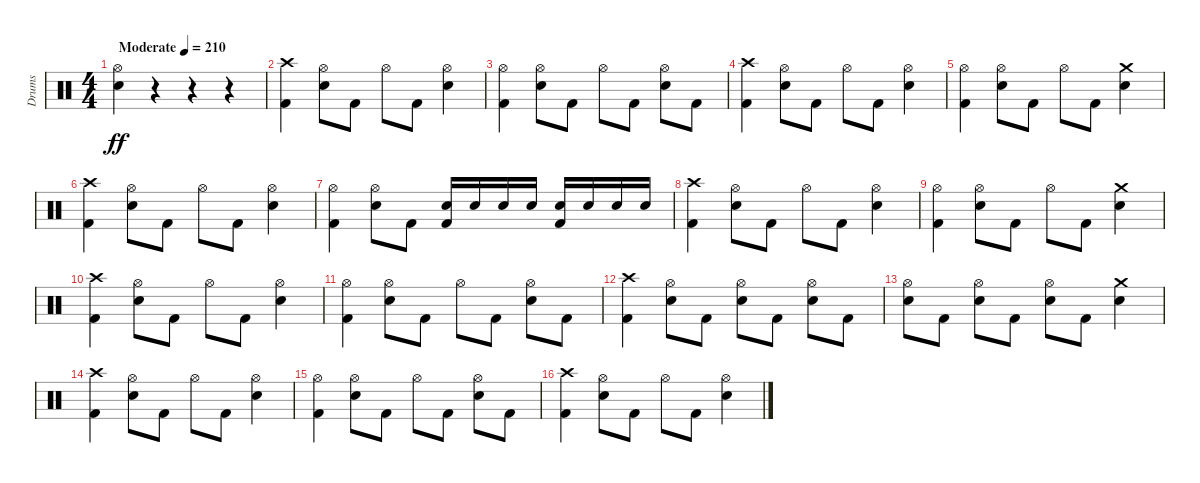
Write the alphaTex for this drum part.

\track ("Drums" "Drums") {instrument percussion}
\staff {score}
\articulation defaults
\ts (4 4)
\tempo (210 "Moderate")
\clef neutral
\ks c
("Hi-Hat (open)" "Electric Snare (hit)").4{dy ff} r.4 r.4 r.4 |
("Crash high (hit)" "Kick (hit) 2").4 ("Hi-Hat (open)" "Electric Snare (hit)").8 "Kick (hit) 2".8 "Hi-Hat (open)".8 "Kick (hit) 2".8 ("Hi-Hat (open)" "Electric Snare (hit)").4 |
("Hi-Hat (open)" "Kick (hit) 2").4 ("Hi-Hat (open)" "Electric Snare (hit)").8 "Kick (hit) 2".8 "Hi-Hat (open)".8 "Kick (hit) 2".8 ("Hi-Hat (open)" "Electric Snare (hit)").8 "Kick (hit) 2".8 |
("Crash high (hit)" "Kick (hit) 2").4 ("Hi-Hat (open)" "Electric Snare (hit)").8 "Kick (hit) 2".8 "Hi-Hat (open)".8 "Kick (hit) 2".8 ("Hi-Hat (open)" "Electric Snare (hit)").4 |
("Hi-Hat (open)" "Kick (hit) 2").4 ("Hi-Hat (open)" "Electric Snare (hit)").8 "Kick (hit) 2".8 "Hi-Hat (open)".8 "Kick (hit) 2".8 ("Crash medium (hit)" "Electric Snare (hit)").4 |
("Crash high (hit)" "Kick (hit) 2").4 ("Hi-Hat (open)" "Electric Snare (hit)").8 "Kick (hit) 2".8 "Hi-Hat (open)".8 "Kick (hit) 2".8 ("Hi-Hat (open)" "Electric Snare (hit)").4 |
("Hi-Hat (open)" "Kick (hit) 2").4 ("Hi-Hat (open)" "Electric Snare (hit)").8 "Kick (hit) 2".8 ("Electric Snare (hit)" "Kick (hit) 2").16 "Electric Snare (hit)".16 "Electric Snare (hit)".16 "Electric Snare (hit)".16 ("Electric Snare (hit)" "Kick (hit) 2").16 "Electric Snare (hit)".16 "Electric Snare (hit)".16 "Electric Snare (hit)".16 |
("Crash high (hit)" "Kick (hit) 2").4 ("Hi-Hat (open)" "Electric Snare (hit)").8 "Kick (hit) 2".8 "Hi-Hat (open)".8 "Kick (hit) 2".8 ("Hi-Hat (open)" "Electric Snare (hit)").4 |
("Hi-Hat (open)" "Kick (hit) 2").4 ("Hi-Hat (open)" "Electric Snare (hit)").8 "Kick (hit) 2".8 "Hi-Hat (open)".8 "Kick (hit) 2".8 ("Crash medium (hit)" "Electric Snare (hit)").4 |
("Crash high (hit)" "Kick (hit) 2").4 ("Hi-Hat (open)" "Electric Snare (hit)").8 "Kick (hit) 2".8 "Hi-Hat (open)".8 "Kick (hit) 2".8 ("Hi-Hat (open)" "Electric Snare (hit)").4 |
("Hi-Hat (open)" "Kick (hit) 2").4 ("Hi-Hat (open)" "Electric Snare (hit)").8 "Kick (hit) 2".8 "Hi-Hat (open)".8 "Kick (hit) 2".8 ("Hi-Hat (open)" "Electric Snare (hit)").8 "Kick (hit) 2".8 |
("Crash high (hit)" "Kick (hit) 2").4 ("Hi-Hat (open)" "Electric Snare (hit)").8 "Kick (hit) 2".8 ("Hi-Hat (open)" "Electric Snare (hit)").8 "Kick (hit) 2".8 ("Hi-Hat (open)" "Electric Snare (hit)").8 "Kick (hit) 2".8 |
("Hi-Hat (open)" "Electric Snare (hit)").8 "Kick (hit) 2".8 ("Hi-Hat (open)" "Electric Snare (hit)").8 "Kick (hit) 2".8 ("Hi-Hat (open)" "Electric Snare (hit)").8 "Kick (hit) 2".8 ("Crash medium (hit)" "Electric Snare (hit)").4 |
("Crash high (hit)" "Kick (hit) 2").4 ("Hi-Hat (open)" "Electric Snare (hit)").8 "Kick (hit) 2".8 "Hi-Hat (open)".8 "Kick (hit) 2".8 ("Hi-Hat (open)" "Electric Snare (hit)").4 |
("Hi-Hat (open)" "Kick (hit) 2").4 ("Hi-Hat (open)" "Electric Snare (hit)").8 "Kick (hit) 2".8 "Hi-Hat (open)".8 "Kick (hit) 2".8 ("Hi-Hat (open)" "Electric Snare (hit)").8 "Kick (hit) 2".8 |
("Crash high (hit)" "Kick (hit) 2").4 ("Hi-Hat (open)" "Electric Snare (hit)").8 "Kick (hit) 2".8 "Hi-Hat (open)".8 "Kick (hit) 2".8 ("Hi-Hat (open)" "Electric Snare (hit)").4
